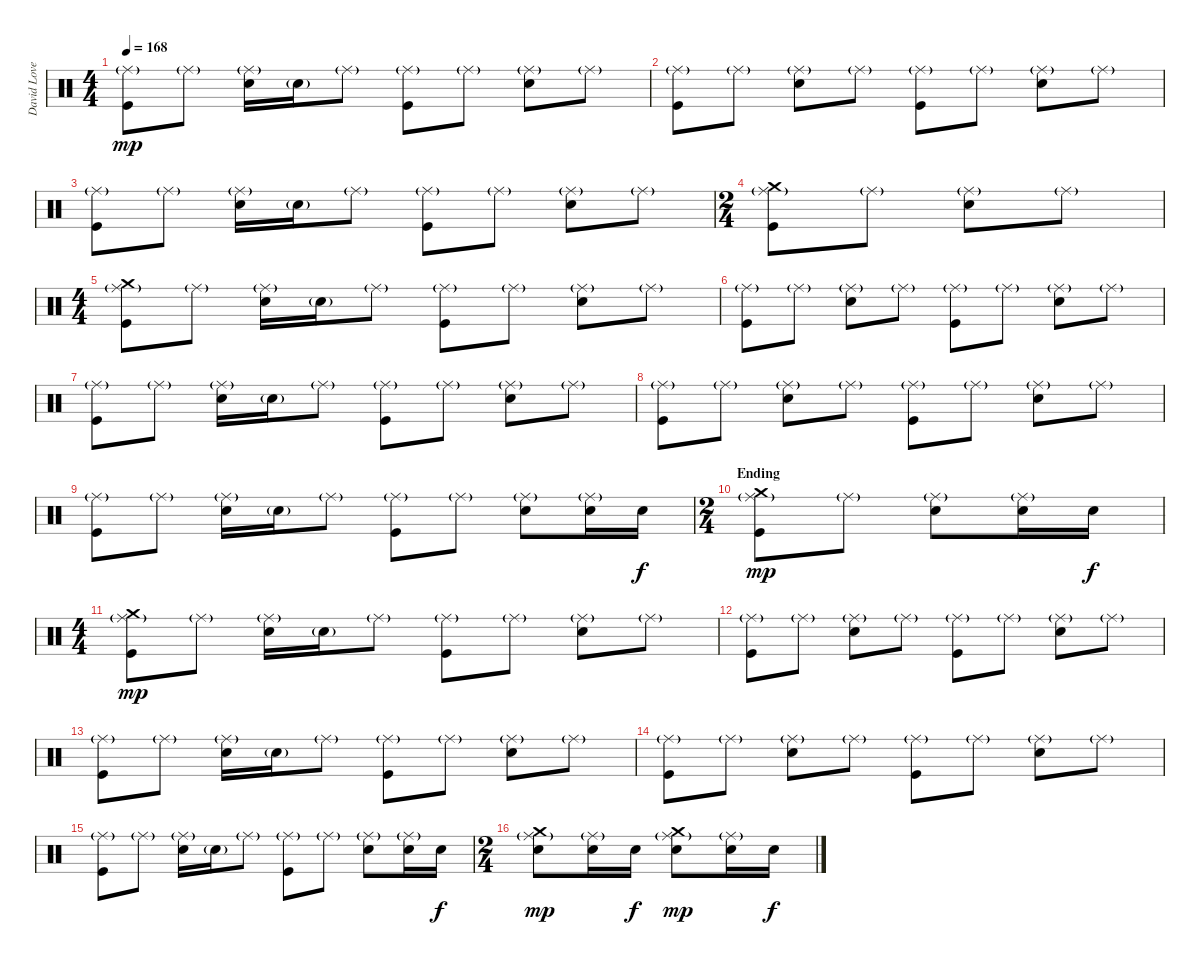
\track ("David Lovering" "David Love") {instrument percussion}
\staff {score}
\articulation defaults
\ts (4 4)
\tempo 168
\clef neutral
\ks c
("Ride (middle)"{g} "Kick (hit)").8{dy mp} "Ride (middle)"{g}.8 ("Ride (middle)"{g} "Snare (hit) 2").16 "Snare (hit) 2"{g}.16 "Ride (middle)"{g}.8 ("Ride (middle)"{g} "Kick (hit)").8 "Ride (middle)"{g}.8 ("Ride (middle)"{g} "Snare (hit) 2").8 "Ride (middle)"{g}.8 |
("Ride (middle)"{g} "Kick (hit)").8 "Ride (middle)"{g}.8 ("Ride (middle)"{g} "Snare (hit) 2").8 "Ride (middle)"{g}.8 ("Ride (middle)"{g} "Kick (hit)").8 "Ride (middle)"{g}.8 ("Ride (middle)"{g} "Snare (hit) 2").8 "Ride (middle)"{g}.8 |
("Ride (middle)"{g} "Kick (hit)").8 "Ride (middle)"{g}.8 ("Ride (middle)"{g} "Snare (hit) 2").16 "Snare (hit) 2"{g}.16 "Ride (middle)"{g}.8 ("Ride (middle)"{g} "Kick (hit)").8 "Ride (middle)"{g}.8 ("Ride (middle)"{g} "Snare (hit) 2").8 "Ride (middle)"{g}.8 |
\ts (2 4)
("Ride (middle)"{g} "Crash medium (hit)" "Kick (hit)").8 "Ride (middle)"{g}.8 ("Ride (middle)"{g} "Snare (hit) 2").8 "Ride (middle)"{g}.8 |
\ts (4 4)
("Ride (middle)"{g} "Crash medium (hit)" "Kick (hit)").8 "Ride (middle)"{g}.8 ("Ride (middle)"{g} "Snare (hit) 2").16 "Snare (hit) 2"{g}.16 "Ride (middle)"{g}.8 ("Ride (middle)"{g} "Kick (hit)").8 "Ride (middle)"{g}.8 ("Ride (middle)"{g} "Snare (hit) 2").8 "Ride (middle)"{g}.8 |
("Ride (middle)"{g} "Kick (hit)").8 "Ride (middle)"{g}.8 ("Ride (middle)"{g} "Snare (hit) 2").8 "Ride (middle)"{g}.8 ("Ride (middle)"{g} "Kick (hit)").8 "Ride (middle)"{g}.8 ("Ride (middle)"{g} "Snare (hit) 2").8 "Ride (middle)"{g}.8 |
("Ride (middle)"{g} "Kick (hit)").8 "Ride (middle)"{g}.8 ("Ride (middle)"{g} "Snare (hit) 2").16 "Snare (hit) 2"{g}.16 "Ride (middle)"{g}.8 ("Ride (middle)"{g} "Kick (hit)").8 "Ride (middle)"{g}.8 ("Ride (middle)"{g} "Snare (hit) 2").8 "Ride (middle)"{g}.8 |
("Ride (middle)"{g} "Kick (hit)").8 "Ride (middle)"{g}.8 ("Ride (middle)"{g} "Snare (hit) 2").8 "Ride (middle)"{g}.8 ("Ride (middle)"{g} "Kick (hit)").8 "Ride (middle)"{g}.8 ("Ride (middle)"{g} "Snare (hit) 2").8 "Ride (middle)"{g}.8 |
("Ride (middle)"{g} "Kick (hit)").8 "Ride (middle)"{g}.8 ("Ride (middle)"{g} "Snare (hit) 2").16 "Snare (hit) 2"{g}.16 "Ride (middle)"{g}.8 ("Ride (middle)"{g} "Kick (hit)").8 "Ride (middle)"{g}.8 ("Ride (middle)"{g} "Snare (hit) 2").8 ("Ride (middle)"{g} "Snare (hit) 2").16 "Snare (hit) 2".16{dy f} |
\ts (2 4)
\section ("" "Ending")
("Ride (middle)"{g} "Crash medium (hit)" "Kick (hit)").8{dy mp} "Ride (middle)"{g}.8 ("Ride (middle)"{g} "Snare (hit) 2").8 ("Ride (middle)"{g} "Snare (hit) 2").16 "Snare (hit) 2".16{dy f} |
\ts (4 4)
("Ride (middle)"{g} "Crash medium (hit)" "Kick (hit)").8{dy mp} "Ride (middle)"{g}.8 ("Ride (middle)"{g} "Snare (hit) 2").16 "Snare (hit) 2"{g}.16 "Ride (middle)"{g}.8 ("Ride (middle)"{g} "Kick (hit)").8 "Ride (middle)"{g}.8 ("Ride (middle)"{g} "Snare (hit) 2").8 "Ride (middle)"{g}.8 |
("Ride (middle)"{g} "Kick (hit)").8 "Ride (middle)"{g}.8 ("Ride (middle)"{g} "Snare (hit) 2").8 "Ride (middle)"{g}.8 ("Ride (middle)"{g} "Kick (hit)").8 "Ride (middle)"{g}.8 ("Ride (middle)"{g} "Snare (hit) 2").8 "Ride (middle)"{g}.8 |
("Ride (middle)"{g} "Kick (hit)").8 "Ride (middle)"{g}.8 ("Ride (middle)"{g} "Snare (hit) 2").16 "Snare (hit) 2"{g}.16 "Ride (middle)"{g}.8 ("Ride (middle)"{g} "Kick (hit)").8 "Ride (middle)"{g}.8 ("Ride (middle)"{g} "Snare (hit) 2").8 "Ride (middle)"{g}.8 |
("Ride (middle)"{g} "Kick (hit)").8 "Ride (middle)"{g}.8 ("Ride (middle)"{g} "Snare (hit) 2").8 "Ride (middle)"{g}.8 ("Ride (middle)"{g} "Kick (hit)").8 "Ride (middle)"{g}.8 ("Ride (middle)"{g} "Snare (hit) 2").8 "Ride (middle)"{g}.8 |
("Ride (middle)"{g} "Kick (hit)").8 "Ride (middle)"{g}.8 ("Ride (middle)"{g} "Snare (hit) 2").16 "Snare (hit) 2"{g}.16 "Ride (middle)"{g}.8 ("Ride (middle)"{g} "Kick (hit)").8 "Ride (middle)"{g}.8 ("Ride (middle)"{g} "Snare (hit) 2").8 ("Ride (middle)"{g} "Snare (hit) 2").16 "Snare (hit) 2".16{dy f} |
\ts (2 4)
("Ride (middle)"{g} "Crash medium (hit)" "Snare (hit) 2").8{dy mp} ("Ride (middle)"{g} "Snare (hit) 2").16 "Snare (hit) 2".16{dy f} ("Ride (middle)"{g} "Crash medium (hit)" "Snare (hit) 2").8{dy mp} ("Ride (middle)"{g} "Snare (hit) 2").16 "Snare (hit) 2".16{dy f}
